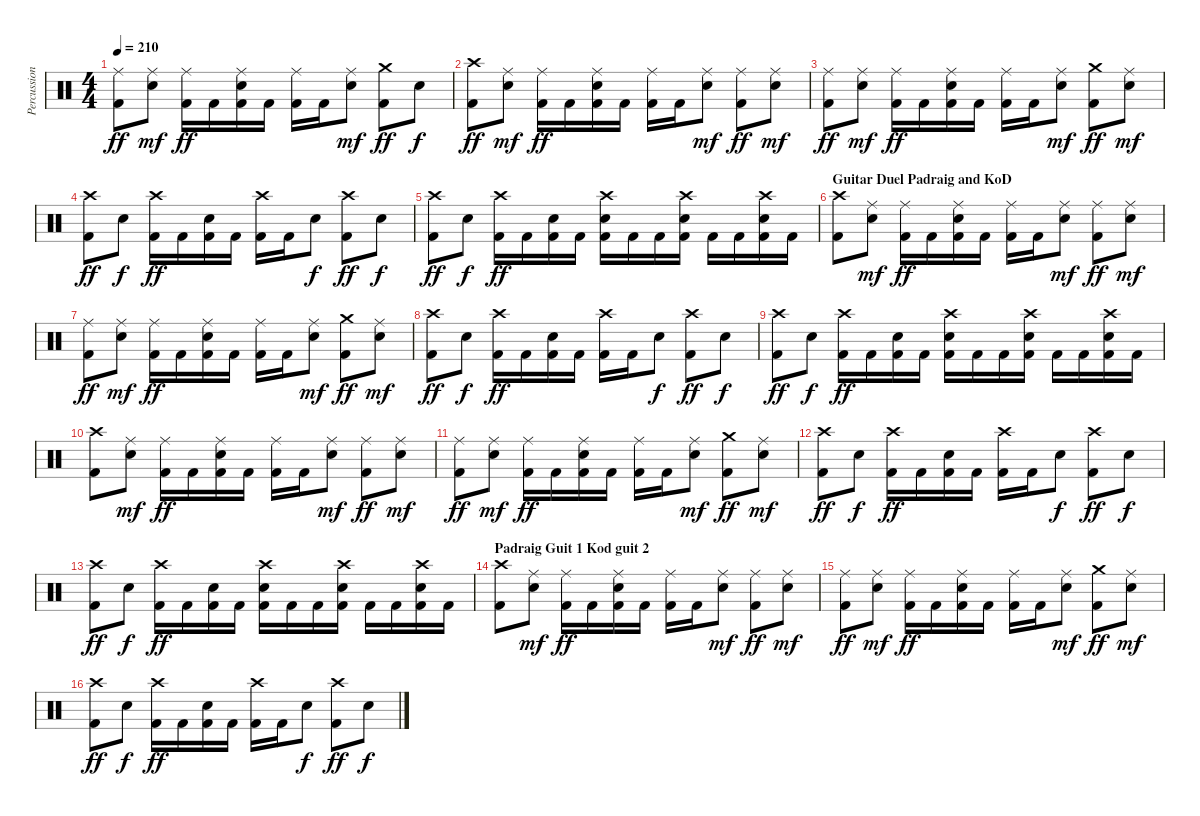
\track ("Percussion" "Percussion") {instrument percussion}
\staff {score}
\articulation defaults
\ts (4 4)
\tempo 210
\clef neutral
\ks c
("Ride (middle)" "Kick (hit) 2").8{dy ff} ("Ride (middle)" "Snare (hit) 2").8{dy mf} ("Ride (middle)" "Kick (hit) 2").16{dy ff} "Kick (hit) 2".16 ("Ride (middle)" "Snare (hit) 2" "Kick (hit) 2").16 "Kick (hit) 2".16 ("Ride (middle)" "Kick (hit) 2").16 "Kick (hit) 2".16 ("Ride (middle)" "Snare (hit) 2").8{dy mf} ("Crash medium (hit)" "Kick (hit) 2").8{dy ff} "Snare (hit) 2".8{dy f} |
("Crash high (hit)" "Kick (hit) 2").8{dy ff} ("Ride (middle)" "Snare (hit) 2").8{dy mf} ("Ride (middle)" "Kick (hit) 2").16{dy ff} "Kick (hit) 2".16 ("Ride (middle)" "Snare (hit) 2" "Kick (hit) 2").16 "Kick (hit) 2".16 ("Ride (middle)" "Kick (hit) 2").16 "Kick (hit) 2".16 ("Ride (middle)" "Snare (hit) 2").8{dy mf} ("Ride (middle)" "Kick (hit) 2").8{dy ff} ("Ride (middle)" "Snare (hit) 2").8{dy mf} |
("Ride (middle)" "Kick (hit) 2").8{dy ff} ("Ride (middle)" "Snare (hit) 2").8{dy mf} ("Ride (middle)" "Kick (hit) 2").16{dy ff} "Kick (hit) 2".16 ("Ride (middle)" "Snare (hit) 2" "Kick (hit) 2").16 "Kick (hit) 2".16 ("Ride (middle)" "Kick (hit) 2").16 "Kick (hit) 2".16 ("Ride (middle)" "Snare (hit) 2").8{dy mf} ("Crash medium (hit)" "Kick (hit) 2").8{dy ff} ("Ride (middle)" "Snare (hit) 2").8{dy mf} |
("Crash high (hit)" "Kick (hit) 2").8{dy ff} "Snare (hit) 2".8{dy f} ("Crash high (hit)" "Kick (hit) 2").16{dy ff} "Kick (hit) 2".16 ("Snare (hit) 2" "Kick (hit) 2").16 "Kick (hit) 2".16 ("Crash high (hit)" "Kick (hit) 2").16 "Kick (hit) 2".16 "Snare (hit) 2".8{dy f} ("Crash high (hit)" "Kick (hit) 2").8{dy ff} "Snare (hit) 2".8{dy f} |
("Crash high (hit)" "Kick (hit) 2").8{dy ff} "Snare (hit) 2".8{dy f} ("Crash high (hit)" "Kick (hit) 2").16{dy ff} "Kick (hit) 2".16 ("Snare (hit) 2" "Kick (hit) 2").16 "Kick (hit) 2".16 ("Crash high (hit)" "Snare (hit) 2" "Kick (hit) 2").16 "Kick (hit) 2".16 "Kick (hit) 2".16 ("Crash high (hit)" "Snare (hit) 2" "Kick (hit) 2").16 "Kick (hit) 2".16 "Kick (hit) 2".16 ("Crash high (hit)" "Snare (hit) 2" "Kick (hit) 2").16 "Kick (hit) 2".16 |
\section ("" "Guitar Duel Padraig and KoD")
("Crash high (hit)" "Kick (hit) 2").8 ("Ride (middle)" "Snare (hit) 2").8{dy mf} ("Ride (middle)" "Kick (hit) 2").16{dy ff} "Kick (hit) 2".16 ("Ride (middle)" "Snare (hit) 2" "Kick (hit) 2").16 "Kick (hit) 2".16 ("Ride (middle)" "Kick (hit) 2").16 "Kick (hit) 2".16 ("Ride (middle)" "Snare (hit) 2").8{dy mf} ("Ride (middle)" "Kick (hit) 2").8{dy ff} ("Ride (middle)" "Snare (hit) 2").8{dy mf} |
("Ride (middle)" "Kick (hit) 2").8{dy ff} ("Ride (middle)" "Snare (hit) 2").8{dy mf} ("Ride (middle)" "Kick (hit) 2").16{dy ff} "Kick (hit) 2".16 ("Ride (middle)" "Snare (hit) 2" "Kick (hit) 2").16 "Kick (hit) 2".16 ("Ride (middle)" "Kick (hit) 2").16 "Kick (hit) 2".16 ("Ride (middle)" "Snare (hit) 2").8{dy mf} ("Crash medium (hit)" "Kick (hit) 2").8{dy ff} ("Ride (middle)" "Snare (hit) 2").8{dy mf} |
("Crash high (hit)" "Kick (hit) 2").8{dy ff} "Snare (hit) 2".8{dy f} ("Crash high (hit)" "Kick (hit) 2").16{dy ff} "Kick (hit) 2".16 ("Snare (hit) 2" "Kick (hit) 2").16 "Kick (hit) 2".16 ("Crash high (hit)" "Kick (hit) 2").16 "Kick (hit) 2".16 "Snare (hit) 2".8{dy f} ("Crash high (hit)" "Kick (hit) 2").8{dy ff} "Snare (hit) 2".8{dy f} |
("Crash high (hit)" "Kick (hit) 2").8{dy ff} "Snare (hit) 2".8{dy f} ("Crash high (hit)" "Kick (hit) 2").16{dy ff} "Kick (hit) 2".16 ("Snare (hit) 2" "Kick (hit) 2").16 "Kick (hit) 2".16 ("Crash high (hit)" "Snare (hit) 2" "Kick (hit) 2").16 "Kick (hit) 2".16 "Kick (hit) 2".16 ("Crash high (hit)" "Snare (hit) 2" "Kick (hit) 2").16 "Kick (hit) 2".16 "Kick (hit) 2".16 ("Crash high (hit)" "Snare (hit) 2" "Kick (hit) 2").16 "Kick (hit) 2".16 |
("Crash high (hit)" "Kick (hit) 2").8 ("Ride (middle)" "Snare (hit) 2").8{dy mf} ("Ride (middle)" "Kick (hit) 2").16{dy ff} "Kick (hit) 2".16 ("Ride (middle)" "Snare (hit) 2" "Kick (hit) 2").16 "Kick (hit) 2".16 ("Ride (middle)" "Kick (hit) 2").16 "Kick (hit) 2".16 ("Ride (middle)" "Snare (hit) 2").8{dy mf} ("Ride (middle)" "Kick (hit) 2").8{dy ff} ("Ride (middle)" "Snare (hit) 2").8{dy mf} |
("Ride (middle)" "Kick (hit) 2").8{dy ff} ("Ride (middle)" "Snare (hit) 2").8{dy mf} ("Ride (middle)" "Kick (hit) 2").16{dy ff} "Kick (hit) 2".16 ("Ride (middle)" "Snare (hit) 2" "Kick (hit) 2").16 "Kick (hit) 2".16 ("Ride (middle)" "Kick (hit) 2").16 "Kick (hit) 2".16 ("Ride (middle)" "Snare (hit) 2").8{dy mf} ("Crash medium (hit)" "Kick (hit) 2").8{dy ff} ("Ride (middle)" "Snare (hit) 2").8{dy mf} |
("Crash high (hit)" "Kick (hit) 2").8{dy ff} "Snare (hit) 2".8{dy f} ("Crash high (hit)" "Kick (hit) 2").16{dy ff} "Kick (hit) 2".16 ("Snare (hit) 2" "Kick (hit) 2").16 "Kick (hit) 2".16 ("Crash high (hit)" "Kick (hit) 2").16 "Kick (hit) 2".16 "Snare (hit) 2".8{dy f} ("Crash high (hit)" "Kick (hit) 2").8{dy ff} "Snare (hit) 2".8{dy f} |
("Crash high (hit)" "Kick (hit) 2").8{dy ff} "Snare (hit) 2".8{dy f} ("Crash high (hit)" "Kick (hit) 2").16{dy ff} "Kick (hit) 2".16 ("Snare (hit) 2" "Kick (hit) 2").16 "Kick (hit) 2".16 ("Crash high (hit)" "Snare (hit) 2" "Kick (hit) 2").16 "Kick (hit) 2".16 "Kick (hit) 2".16 ("Crash high (hit)" "Snare (hit) 2" "Kick (hit) 2").16 "Kick (hit) 2".16 "Kick (hit) 2".16 ("Crash high (hit)" "Snare (hit) 2" "Kick (hit) 2").16 "Kick (hit) 2".16 |
\section ("" "Padraig Guit 1 Kod guit 2")
("Crash high (hit)" "Kick (hit) 2").8 ("Ride (middle)" "Snare (hit) 2").8{dy mf} ("Ride (middle)" "Kick (hit) 2").16{dy ff} "Kick (hit) 2".16 ("Ride (middle)" "Snare (hit) 2" "Kick (hit) 2").16 "Kick (hit) 2".16 ("Ride (middle)" "Kick (hit) 2").16 "Kick (hit) 2".16 ("Ride (middle)" "Snare (hit) 2").8{dy mf} ("Ride (middle)" "Kick (hit) 2").8{dy ff} ("Ride (middle)" "Snare (hit) 2").8{dy mf} |
("Ride (middle)" "Kick (hit) 2").8{dy ff} ("Ride (middle)" "Snare (hit) 2").8{dy mf} ("Ride (middle)" "Kick (hit) 2").16{dy ff} "Kick (hit) 2".16 ("Ride (middle)" "Snare (hit) 2" "Kick (hit) 2").16 "Kick (hit) 2".16 ("Ride (middle)" "Kick (hit) 2").16 "Kick (hit) 2".16 ("Ride (middle)" "Snare (hit) 2").8{dy mf} ("Crash medium (hit)" "Kick (hit) 2").8{dy ff} ("Ride (middle)" "Snare (hit) 2").8{dy mf} |
("Crash high (hit)" "Kick (hit) 2").8{dy ff} "Snare (hit) 2".8{dy f} ("Crash high (hit)" "Kick (hit) 2").16{dy ff} "Kick (hit) 2".16 ("Snare (hit) 2" "Kick (hit) 2").16 "Kick (hit) 2".16 ("Crash high (hit)" "Kick (hit) 2").16 "Kick (hit) 2".16 "Snare (hit) 2".8{dy f} ("Crash high (hit)" "Kick (hit) 2").8{dy ff} "Snare (hit) 2".8{dy f}
